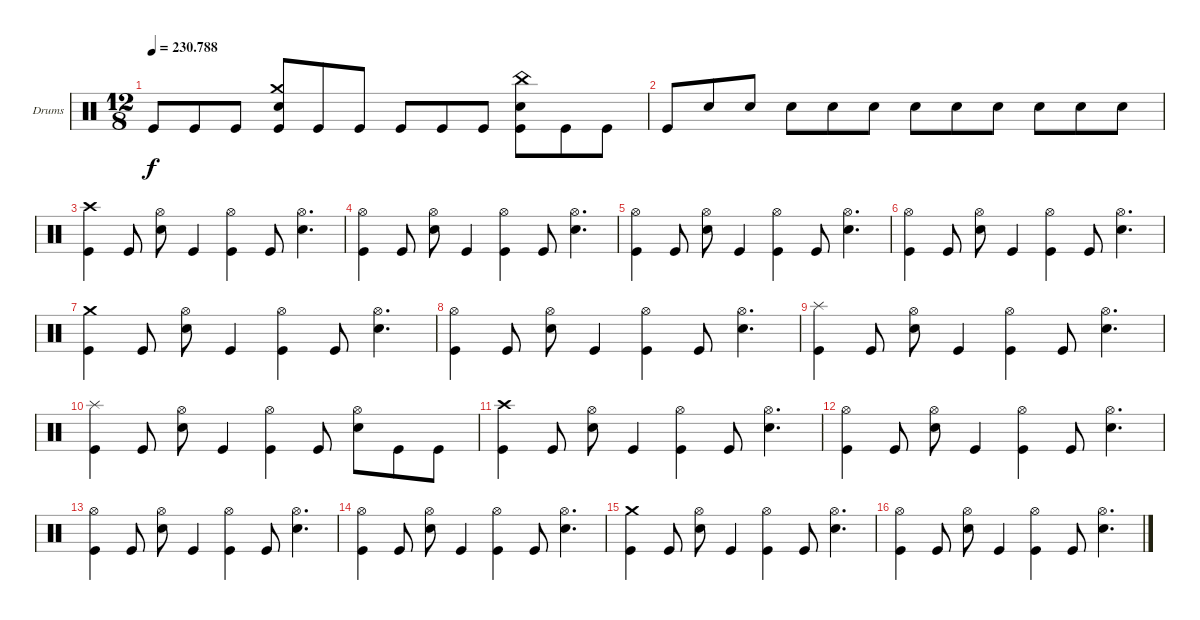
\bracketExtendMode groupsimilarinstruments
\firstSystemTrackNameOrientation horizontal
\otherSystemsTrackNameOrientation horizontal
\track ("Ударные" "Drums") {instrument percussion}
\staff {score}
\articulation defaults
\ts (12 8)
\tempo
230.788
\accidentals auto
\clef neutral
\ottava regular
\simile none
\ks c "Kick (hit)".8{dy f} "Kick (hit)".8 "Kick (hit)".8
("Kick (hit)" "Crash medium (hit)" "Snare (hit) 2").8 "Kick (hit)".8 "Kick (hit)".8 "Kick (hit)".8 "Kick (hit)".8 "Kick (hit)".8 ("Kick (hit)" "China (hit)" "Snare (hit) 2").8 "Kick (hit)".8 "Kick (hit)".8 |
"Kick (hit)".8 "Snare (hit) 2".8 "Snare (hit) 2".8 "Snare (hit) 2".8 "Snare (hit) 2".8 "Snare (hit) 2".8 "Snare (hit) 2".8 "Snare (hit) 2".8 "Snare (hit) 2".8 "Snare (hit) 2".8 "Snare (hit) 2".8 "Snare (hit) 2".8 |
("Kick (hit)" "Crash high (hit)").4 "Kick (hit)".8 ("Snare (hit) 2" "Hi-Hat (open)").8 "Kick (hit)".4 ("Kick (hit)" "Hi-Hat (open)").4 "Kick (hit)".8 ("Snare (hit) 2" "Hi-Hat (open)").4{d} |
("Hi-Hat (open)" "Kick (hit)").4 "Kick (hit)".8 ("Hi-Hat (open)" "Snare (hit) 2").8 "Kick (hit)".4 ("Hi-Hat (open)" "Kick (hit)").4 "Kick (hit)".8 ("Hi-Hat (open)" "Snare (hit) 2").4{d} |
("Hi-Hat (open)" "Kick (hit)").4 "Kick (hit)".8 ("Hi-Hat (open)" "Snare (hit) 2").8 "Kick (hit)".4 ("Hi-Hat (open)" "Kick (hit)").4 "Kick (hit)".8 ("Hi-Hat (open)" "Snare (hit) 2").4{d} |
("Hi-Hat (open)" "Kick (hit)").4 "Kick (hit)".8 ("Hi-Hat (open)" "Snare (hit) 2").8 "Kick (hit)".4 ("Hi-Hat (open)" "Kick (hit)").4 "Kick (hit)".8 ("Hi-Hat (open)" "Snare (hit) 2").4{d} |
("Kick (hit)" "Crash medium (hit)").4 "Kick (hit)".8 ("Snare (hit) 2" "Hi-Hat (open)").8 "Kick (hit)".4 ("Kick (hit)" "Hi-Hat (open)").4 "Kick (hit)".8 ("Snare (hit) 2" "Hi-Hat (open)").4{d} |
("Hi-Hat (open)" "Kick (hit)").4 "Kick (hit)".8 ("Hi-Hat (open)" "Snare (hit) 2").8 "Kick (hit)".4 ("Hi-Hat (open)" "Kick (hit)").4 "Kick (hit)".8 ("Hi-Hat (open)" "Snare (hit) 2").4{d} |
("Splash (hit)" "Kick (hit)").4 "Kick (hit)".8 ("Hi-Hat (open)" "Snare (hit) 2").8 "Kick (hit)".4 ("Hi-Hat (open)" "Kick (hit)").4 "Kick (hit)".8 ("Hi-Hat (open)" "Snare (hit) 2").4{d} |
("Splash (hit)" "Kick (hit)").4 "Kick (hit)".8 ("Hi-Hat (open)" "Snare (hit) 2").8 "Kick (hit)".4 ("Hi-Hat (open)" "Kick (hit)").4 "Kick (hit)".8 ("Snare (hit) 2" "Hi-Hat (open)").8 "Kick (hit)".8 "Kick (hit)".8 |
("Kick (hit)" "Crash high (hit)").4 "Kick (hit)".8 ("Snare (hit) 2" "Hi-Hat (open)").8 "Kick (hit)".4 ("Kick (hit)" "Hi-Hat (open)").4 "Kick (hit)".8 ("Snare (hit) 2" "Hi-Hat (open)").4{d} |
("Hi-Hat (open)" "Kick (hit)").4 "Kick (hit)".8 ("Hi-Hat (open)" "Snare (hit) 2").8 "Kick (hit)".4 ("Hi-Hat (open)" "Kick (hit)").4 "Kick (hit)".8 ("Hi-Hat (open)" "Snare (hit) 2").4{d} |
("Hi-Hat (open)" "Kick (hit)").4 "Kick (hit)".8 ("Hi-Hat (open)" "Snare (hit) 2").8 "Kick (hit)".4 ("Hi-Hat (open)" "Kick (hit)").4 "Kick (hit)".8 ("Hi-Hat (open)" "Snare (hit) 2").4{d} |
("Hi-Hat (open)" "Kick (hit)").4 "Kick (hit)".8 ("Hi-Hat (open)" "Snare (hit) 2").8 "Kick (hit)".4 ("Hi-Hat (open)" "Kick (hit)").4 "Kick (hit)".8 ("Hi-Hat (open)" "Snare (hit) 2").4{d} |
("Kick (hit)" "Crash medium (hit)").4 "Kick (hit)".8 ("Snare (hit) 2" "Hi-Hat (open)").8 "Kick (hit)".4 ("Kick (hit)" "Hi-Hat (open)").4 "Kick (hit)".8 ("Snare (hit) 2" "Hi-Hat (open)").4{d} |
("Hi-Hat (open)" "Kick (hit)").4 "Kick (hit)".8 ("Hi-Hat (open)" "Snare (hit) 2").8 "Kick (hit)".4 ("Hi-Hat (open)" "Kick (hit)").4 "Kick (hit)".8 ("Hi-Hat (open)" "Snare (hit) 2").4{d}
